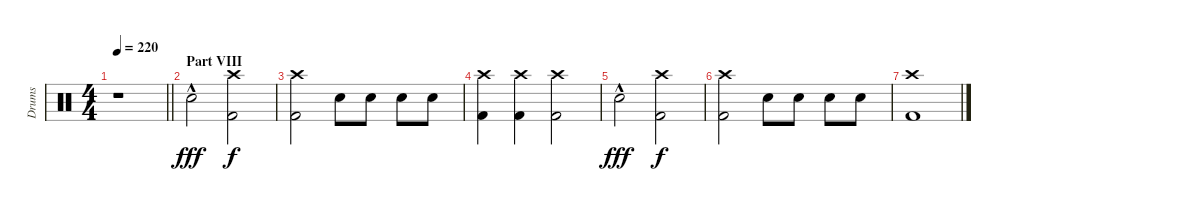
\track ("Drums" "Drums") {instrument percussion}
\staff {score}
\articulation defaults
\ts (4 4)
\tempo 220
\clef neutral
\barLineRight lightlight
\ks c
r.1{dy f} |
\section ("" "Part VIII")
"Electric Snare (hit)"{hac}.2{dy fff} ("Crash high (hit)" "Kick (hit) 2").2{dy f} |
("Crash high (hit)" "Kick (hit) 2").2 "Electric Snare (hit)".8 "Electric Snare (hit)".8 "Electric Snare (hit)".8 "Electric Snare (hit)".8 |
("Crash high (hit)" "Kick (hit) 2").4 ("Crash high (hit)" "Kick (hit) 2").4 ("Crash high (hit)" "Kick (hit) 2").2 |
"Electric Snare (hit)"{hac}.2{dy fff} ("Crash high (hit)" "Kick (hit) 2").2{dy f} |
("Crash high (hit)" "Kick (hit) 2").2 "Electric Snare (hit)".8 "Electric Snare (hit)".8 "Electric Snare (hit)".8 "Electric Snare (hit)".8 |
("Crash high (hit)" "Kick (hit) 2").1
